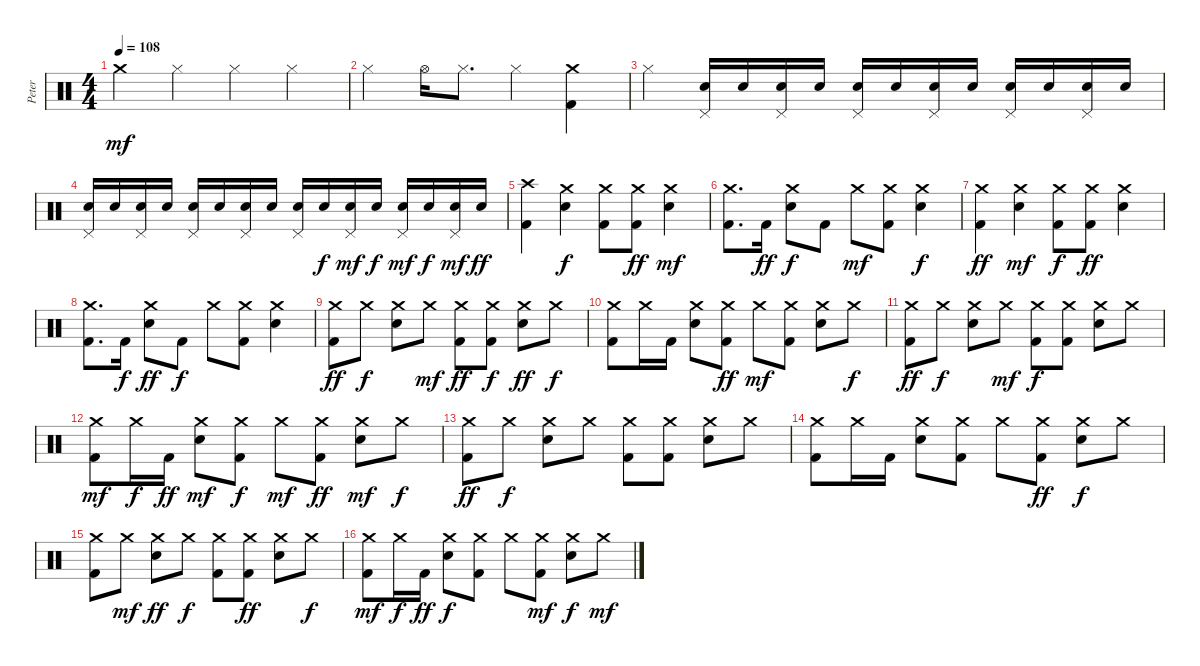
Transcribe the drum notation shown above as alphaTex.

\track ("Peter" "Peter") {instrument percussion}
\staff {score}
\articulation defaults
\ts (4 4)
\tempo 108
\clef neutral
\ks c "Crash medium (hit)".4{dy mf} "Hi-Hat (closed)".4 "Hi-Hat (closed)".4 "Hi-Hat (closed)".4
|
"Hi-Hat (closed)".4 "Hi-Hat (open)".16 "Hi-Hat (closed)".8{d} "Hi-Hat (closed)".4 ("Kick (hit) 2" "Crash medium (hit)").4 |
"Hi-Hat (closed)".4 ("Electric Snare (hit)" "Pedal Hi-Hat (hit)").16 "Electric Snare (hit)".16 ("Pedal Hi-Hat (hit)" "Electric Snare (hit)").16 "Electric Snare (hit)".16 ("Pedal Hi-Hat (hit)" "Electric Snare (hit)").16 "Electric Snare (hit)".16 ("Pedal Hi-Hat (hit)" "Electric Snare (hit)").16 "Electric Snare (hit)".16 ("Pedal Hi-Hat (hit)" "Electric Snare (hit)").16 "Electric Snare (hit)".16 ("Pedal Hi-Hat (hit)" "Electric Snare (hit)").16 "Electric Snare (hit)".16 |
("Electric Snare (hit)" "Pedal Hi-Hat (hit)").16 "Electric Snare (hit)".16 ("Pedal Hi-Hat (hit)" "Electric Snare (hit)").16 "Electric Snare (hit)".16 ("Pedal Hi-Hat (hit)" "Electric Snare (hit)").16 "Electric Snare (hit)".16 ("Pedal Hi-Hat (hit)" "Electric Snare (hit)").16 "Electric Snare (hit)".16 ("Electric Snare (hit)" "Pedal Hi-Hat (hit)").16 "Electric Snare (hit)".16{dy f} ("Electric Snare (hit)" "Pedal Hi-Hat (hit)").16{dy mf} "Electric Snare (hit)".16{dy f} ("Pedal Hi-Hat (hit)" "Electric Snare (hit)").16{dy mf} "Electric Snare (hit)".16{dy f} ("Electric Snare (hit)" "Pedal Hi-Hat (hit)").16{dy mf} "Electric Snare (hit)".16{dy ff} |
("Crash high (hit)" "Kick (hit) 2").4 ("Electric Snare (hit)" "Crash medium (hit)").4{dy f} ("Crash medium (hit)" "Kick (hit) 2").8 ("Kick (hit) 2" "Crash medium (hit)").8{dy ff} ("Crash medium (hit)" "Electric Snare (hit)").4{dy mf} |
("Kick (hit) 2" "Crash medium (hit)").8{d} "Kick (hit) 2".16{dy ff} ("Crash medium (hit)" "Electric Snare (hit)").8{dy f} "Kick (hit) 2".8 "Crash medium (hit)".8{dy mf} ("Crash medium (hit)" "Kick (hit) 2").8 ("Crash medium (hit)" "Electric Snare (hit)").4{dy f} |
("Kick (hit) 2" "Crash medium (hit)").4{dy ff} ("Electric Snare (hit)" "Crash medium (hit)").4{dy mf} ("Crash medium (hit)" "Kick (hit) 2").8{dy f} ("Crash medium (hit)" "Kick (hit) 2").8{dy ff} ("Crash medium (hit)" "Electric Snare (hit)").4 |
("Crash medium (hit)" "Kick (hit) 2").8{d} "Kick (hit) 2".16{dy f} ("Crash medium (hit)" "Electric Snare (hit)").8{dy ff} "Kick (hit) 2".8{dy f} "Crash medium (hit)".8 ("Crash medium (hit)" "Kick (hit) 2").8 ("Electric Snare (hit)" "Crash medium (hit)").4 |
("Crash medium (hit)" "Kick (hit) 2").8{dy ff} "Crash medium (hit)".8{dy f} ("Electric Snare (hit)" "Crash medium (hit)").8 "Crash medium (hit)".8{dy mf} ("Crash medium (hit)" "Kick (hit) 2").8{dy ff} ("Crash medium (hit)" "Kick (hit) 2").8{dy f} ("Crash medium (hit)" "Electric Snare (hit)").8{dy ff} "Crash medium (hit)".8{dy f} |
("Kick (hit) 2" "Crash medium (hit)").8 "Crash medium (hit)".16 "Kick (hit) 2".16 ("Electric Snare (hit)" "Crash medium (hit)").8 ("Crash medium (hit)" "Kick (hit) 2").8{dy ff} "Crash medium (hit)".8{dy mf} ("Kick (hit) 2" "Crash medium (hit)").8 ("Crash medium (hit)" "Electric Snare (hit)").8 "Crash medium (hit)".8{dy f} |
("Kick (hit) 2" "Crash medium (hit)").8{dy ff} "Crash medium (hit)".8{dy f} ("Crash medium (hit)" "Electric Snare (hit)").8 "Crash medium (hit)".8{dy mf} ("Crash medium (hit)" "Kick (hit) 2").8{dy f} ("Crash medium (hit)" "Kick (hit) 2").8 ("Crash medium (hit)" "Electric Snare (hit)").8 "Crash medium (hit)".8 |
("Kick (hit) 2" "Crash medium (hit)").8{dy mf} "Crash medium (hit)".16{dy f} "Kick (hit) 2".16{dy ff} ("Electric Snare (hit)" "Crash medium (hit)").8{dy mf} ("Kick (hit) 2" "Crash medium (hit)").8{dy f} "Crash medium (hit)".8{dy mf} ("Crash medium (hit)" "Kick (hit) 2").8{dy ff} ("Electric Snare (hit)" "Crash medium (hit)").8{dy mf} "Crash medium (hit)".8{dy f} |
("Kick (hit) 2" "Crash medium (hit)").8{dy ff} "Crash medium (hit)".8{dy f} ("Electric Snare (hit)" "Crash medium (hit)").8 "Crash medium (hit)".8 ("Kick (hit) 2" "Crash medium (hit)").8 ("Kick (hit) 2" "Crash medium (hit)").8 ("Crash medium (hit)" "Electric Snare (hit)").8 "Crash medium (hit)".8 |
("Kick (hit) 2" "Crash medium (hit)").8 "Crash medium (hit)".16 "Kick (hit) 2".16 ("Crash medium (hit)" "Electric Snare (hit)").8 ("Kick (hit) 2" "Crash medium (hit)").8 "Crash medium (hit)".8 ("Kick (hit) 2" "Crash medium (hit)").8{dy ff} ("Electric Snare (hit)" "Crash medium (hit)").8{dy f} "Crash medium (hit)".8 |
("Crash medium (hit)" "Kick (hit) 2").8 "Crash medium (hit)".8{dy mf} ("Electric Snare (hit)" "Crash medium (hit)").8{dy ff} "Crash medium (hit)".8{dy f} ("Crash medium (hit)" "Kick (hit) 2").8 ("Crash medium (hit)" "Kick (hit) 2").8{dy ff} ("Crash medium (hit)" "Electric Snare (hit)").8 "Crash medium (hit)".8{dy f} |
("Kick (hit) 2" "Crash medium (hit)").8{dy mf} "Crash medium (hit)".16{dy f} "Kick (hit) 2".16{dy ff} ("Crash medium (hit)" "Electric Snare (hit)").8{dy f} ("Kick (hit) 2" "Crash medium (hit)").8 "Crash medium (hit)".8 ("Kick (hit) 2" "Crash medium (hit)").8{dy mf} ("Electric Snare (hit)" "Crash medium (hit)").8{dy f} "Crash medium (hit)".8{dy mf}
